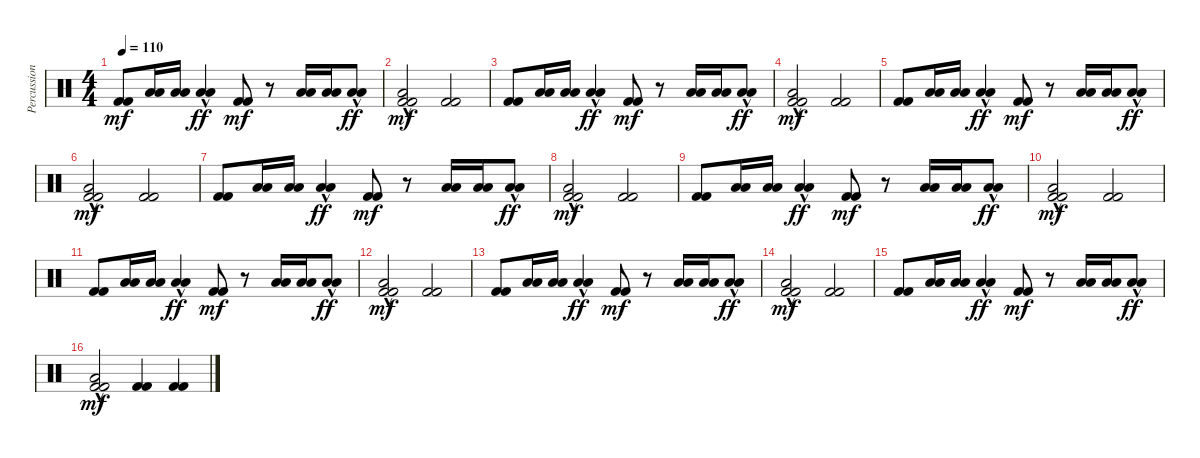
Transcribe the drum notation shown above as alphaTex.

\track ("Percussion" "Percussion") {instrument percussion}
\staff {score}
\articulation defaults
\ts (4 4)
\tempo 110
\clef neutral
\ks c
("Kick (hit) 2" "Kick (hit) 2").8{dy mf} ("Low Floor Tom (hit)" "Low Floor Tom (hit)").16 ("Low Floor Tom (hit)" "Low Floor Tom (hit)").16 ("Low Floor Tom (hit)"{hac} "Low Floor Tom (hit)"{hac}).4{dy ff} ("Kick (hit) 2" "Kick (hit) 2").8{dy mf} r.8 ("Low Floor Tom (hit)" "Low Floor Tom (hit)").16 ("Low Floor Tom (hit)" "Low Floor Tom (hit)").16 ("Low Floor Tom (hit)"{hac} "Low Floor Tom (hit)"{hac}).8{dy ff} |
("Low Floor Tom (hit)"{hac} "Kick (hit) 2" "Kick (hit) 2").2{dy mf} ("Kick (hit) 2" "Kick (hit) 2").2 |
("Kick (hit) 2" "Kick (hit) 2").8 ("Low Floor Tom (hit)" "Low Floor Tom (hit)").16 ("Low Floor Tom (hit)" "Low Floor Tom (hit)").16 ("Low Floor Tom (hit)"{hac} "Low Floor Tom (hit)"{hac}).4{dy ff} ("Kick (hit) 2" "Kick (hit) 2").8{dy mf} r.8 ("Low Floor Tom (hit)" "Low Floor Tom (hit)").16 ("Low Floor Tom (hit)" "Low Floor Tom (hit)").16 ("Low Floor Tom (hit)"{hac} "Low Floor Tom (hit)"{hac}).8{dy ff} |
("Low Floor Tom (hit)"{hac} "Kick (hit) 2" "Kick (hit) 2").2{dy mf} ("Kick (hit) 2" "Kick (hit) 2").2 |
("Kick (hit) 2" "Kick (hit) 2").8 ("Low Floor Tom (hit)" "Low Floor Tom (hit)").16 ("Low Floor Tom (hit)" "Low Floor Tom (hit)").16 ("Low Floor Tom (hit)"{hac} "Low Floor Tom (hit)"{hac}).4{dy ff} ("Kick (hit) 2" "Kick (hit) 2").8{dy mf} r.8 ("Low Floor Tom (hit)" "Low Floor Tom (hit)").16 ("Low Floor Tom (hit)" "Low Floor Tom (hit)").16 ("Low Floor Tom (hit)"{hac} "Low Floor Tom (hit)"{hac}).8{dy ff} |
("Low Floor Tom (hit)"{hac} "Kick (hit) 2" "Kick (hit) 2").2{dy mf} ("Kick (hit) 2" "Kick (hit) 2").2 |
("Kick (hit) 2" "Kick (hit) 2").8 ("Low Floor Tom (hit)" "Low Floor Tom (hit)").16 ("Low Floor Tom (hit)" "Low Floor Tom (hit)").16 ("Low Floor Tom (hit)"{hac} "Low Floor Tom (hit)"{hac}).4{dy ff} ("Kick (hit) 2" "Kick (hit) 2").8{dy mf} r.8 ("Low Floor Tom (hit)" "Low Floor Tom (hit)").16 ("Low Floor Tom (hit)" "Low Floor Tom (hit)").16 ("Low Floor Tom (hit)"{hac} "Low Floor Tom (hit)"{hac}).8{dy ff} |
("Low Floor Tom (hit)"{hac} "Kick (hit) 2" "Kick (hit) 2").2{dy mf} ("Kick (hit) 2" "Kick (hit) 2").2 |
("Kick (hit) 2" "Kick (hit) 2").8 ("Low Floor Tom (hit)" "Low Floor Tom (hit)").16 ("Low Floor Tom (hit)" "Low Floor Tom (hit)").16 ("Low Floor Tom (hit)"{hac} "Low Floor Tom (hit)"{hac}).4{dy ff} ("Kick (hit) 2" "Kick (hit) 2").8{dy mf} r.8 ("Low Floor Tom (hit)" "Low Floor Tom (hit)").16 ("Low Floor Tom (hit)" "Low Floor Tom (hit)").16 ("Low Floor Tom (hit)"{hac} "Low Floor Tom (hit)"{hac}).8{dy ff} |
("Low Floor Tom (hit)"{hac} "Kick (hit) 2" "Kick (hit) 2").2{dy mf} ("Kick (hit) 2" "Kick (hit) 2").2 |
("Kick (hit) 2" "Kick (hit) 2").8 ("Low Floor Tom (hit)" "Low Floor Tom (hit)").16 ("Low Floor Tom (hit)" "Low Floor Tom (hit)").16 ("Low Floor Tom (hit)"{hac} "Low Floor Tom (hit)"{hac}).4{dy ff} ("Kick (hit) 2" "Kick (hit) 2").8{dy mf} r.8 ("Low Floor Tom (hit)" "Low Floor Tom (hit)").16 ("Low Floor Tom (hit)" "Low Floor Tom (hit)").16 ("Low Floor Tom (hit)"{hac} "Low Floor Tom (hit)"{hac}).8{dy ff} |
("Low Floor Tom (hit)"{hac} "Kick (hit) 2" "Kick (hit) 2").2{dy mf} ("Kick (hit) 2" "Kick (hit) 2").2 |
("Kick (hit) 2" "Kick (hit) 2").8 ("Low Floor Tom (hit)" "Low Floor Tom (hit)").16 ("Low Floor Tom (hit)" "Low Floor Tom (hit)").16 ("Low Floor Tom (hit)"{hac} "Low Floor Tom (hit)"{hac}).4{dy ff} ("Kick (hit) 2" "Kick (hit) 2").8{dy mf} r.8 ("Low Floor Tom (hit)" "Low Floor Tom (hit)").16 ("Low Floor Tom (hit)" "Low Floor Tom (hit)").16 ("Low Floor Tom (hit)"{hac} "Low Floor Tom (hit)"{hac}).8{dy ff} |
("Low Floor Tom (hit)"{hac} "Kick (hit) 2" "Kick (hit) 2").2{dy mf} ("Kick (hit) 2" "Kick (hit) 2").2 |
("Kick (hit) 2" "Kick (hit) 2").8 ("Low Floor Tom (hit)" "Low Floor Tom (hit)").16 ("Low Floor Tom (hit)" "Low Floor Tom (hit)").16 ("Low Floor Tom (hit)"{hac} "Low Floor Tom (hit)"{hac}).4{dy ff} ("Kick (hit) 2" "Kick (hit) 2").8{dy mf} r.8 ("Low Floor Tom (hit)" "Low Floor Tom (hit)").16 ("Low Floor Tom (hit)" "Low Floor Tom (hit)").16 ("Low Floor Tom (hit)"{hac} "Low Floor Tom (hit)"{hac}).8{dy ff} |
("Low Floor Tom (hit)"{hac} "Kick (hit) 2" "Kick (hit) 2").2{dy mf} ("Kick (hit) 2" "Kick (hit) 2").4 ("Kick (hit) 2" "Kick (hit) 2").4
